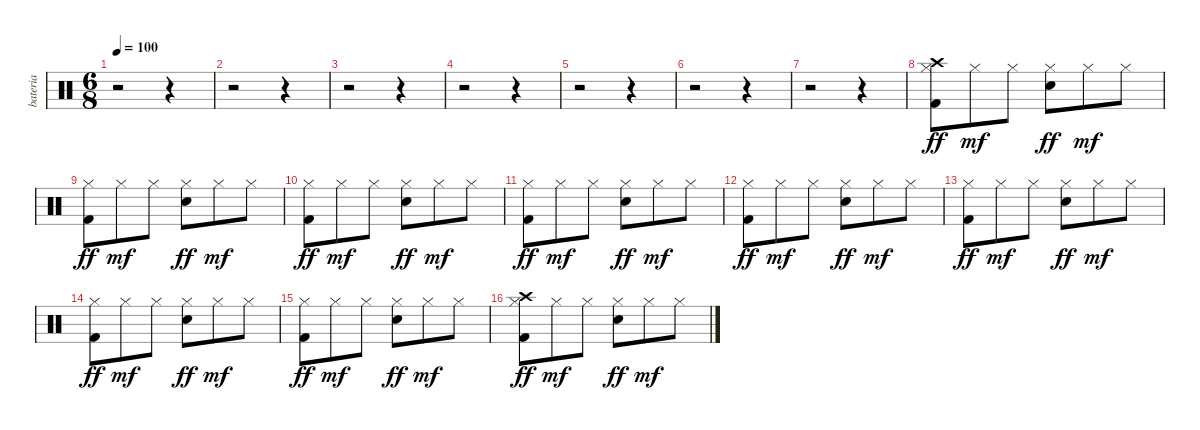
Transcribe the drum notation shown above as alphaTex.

\track ("bateria" "bateria") {instrument percussion}
\staff {score}
\articulation defaults
\ts (6 8)
\tempo 100
\clef neutral
\ks c
r.2{dy ff} r.4 |
r.2 r.4 |
r.2 r.4 |
r.2 r.4 |
r.2 r.4 |
r.2 r.4 |
r.2 r.4 |
("Crash high (hit)" "Hi-Hat (closed)" "Kick (hit) 2").8 "Hi-Hat (closed)".8{dy mf} "Hi-Hat (closed)".8 ("Hi-Hat (closed)" "Snare (hit) 2").8{dy ff} "Hi-Hat (closed)".8{dy mf} "Hi-Hat (closed)".8 |
("Hi-Hat (closed)" "Kick (hit) 2").8{dy ff} "Hi-Hat (closed)".8{dy mf} "Hi-Hat (closed)".8 ("Hi-Hat (closed)" "Snare (hit) 2").8{dy ff} "Hi-Hat (closed)".8{dy mf} "Hi-Hat (closed)".8 |
("Hi-Hat (closed)" "Kick (hit) 2").8{dy ff} "Hi-Hat (closed)".8{dy mf} "Hi-Hat (closed)".8 ("Hi-Hat (closed)" "Snare (hit) 2").8{dy ff} "Hi-Hat (closed)".8{dy mf} "Hi-Hat (closed)".8 |
("Hi-Hat (closed)" "Kick (hit) 2").8{dy ff} "Hi-Hat (closed)".8{dy mf} "Hi-Hat (closed)".8 ("Hi-Hat (closed)" "Snare (hit) 2").8{dy ff} "Hi-Hat (closed)".8{dy mf} "Hi-Hat (closed)".8 |
("Hi-Hat (closed)" "Kick (hit) 2").8{dy ff} "Hi-Hat (closed)".8{dy mf} "Hi-Hat (closed)".8 ("Hi-Hat (closed)" "Snare (hit) 2").8{dy ff} "Hi-Hat (closed)".8{dy mf} "Hi-Hat (closed)".8 |
("Hi-Hat (closed)" "Kick (hit) 2").8{dy ff} "Hi-Hat (closed)".8{dy mf} "Hi-Hat (closed)".8 ("Hi-Hat (closed)" "Snare (hit) 2").8{dy ff} "Hi-Hat (closed)".8{dy mf} "Hi-Hat (closed)".8 |
("Hi-Hat (closed)" "Kick (hit) 2").8{dy ff} "Hi-Hat (closed)".8{dy mf} "Hi-Hat (closed)".8 ("Hi-Hat (closed)" "Snare (hit) 2").8{dy ff} "Hi-Hat (closed)".8{dy mf} "Hi-Hat (closed)".8 |
("Hi-Hat (closed)" "Kick (hit) 2").8{dy ff} "Hi-Hat (closed)".8{dy mf} "Hi-Hat (closed)".8 ("Hi-Hat (closed)" "Snare (hit) 2").8{dy ff} "Hi-Hat (closed)".8{dy mf} "Hi-Hat (closed)".8 |
("Crash high (hit)" "Hi-Hat (closed)" "Kick (hit) 2").8{dy ff} "Hi-Hat (closed)".8{dy mf} "Hi-Hat (closed)".8 ("Hi-Hat (closed)" "Snare (hit) 2").8{dy ff} "Hi-Hat (closed)".8{dy mf} "Hi-Hat (closed)".8
